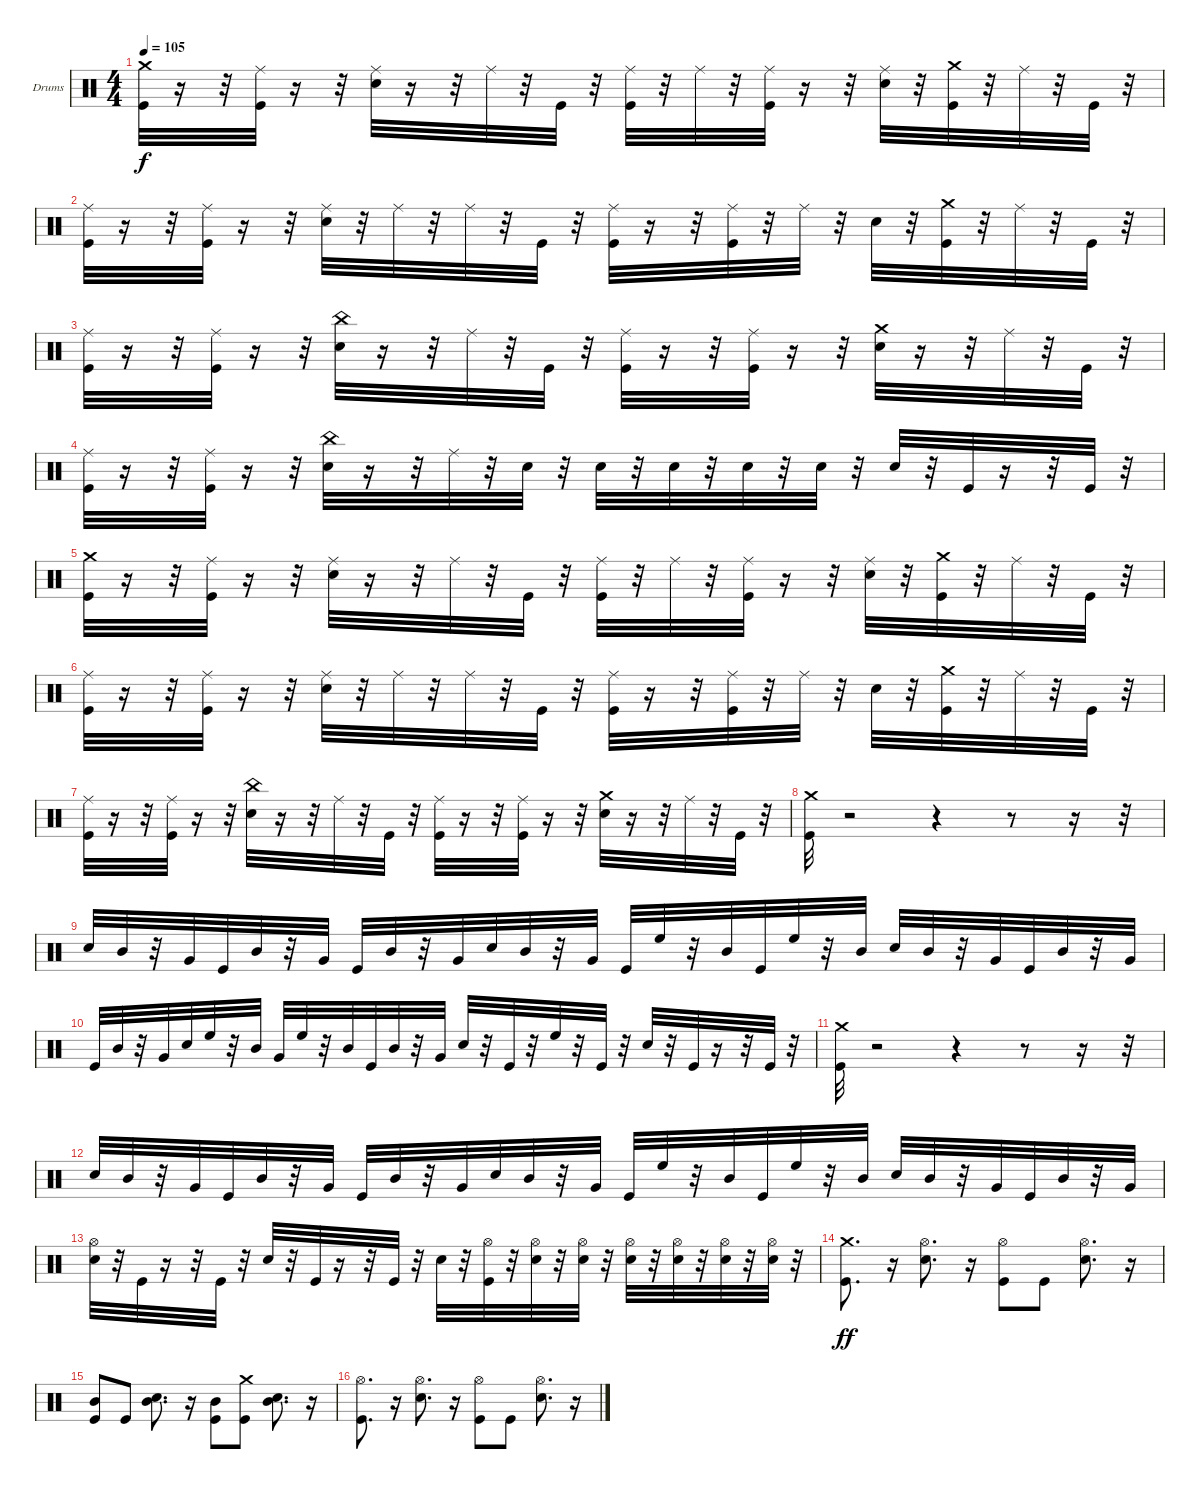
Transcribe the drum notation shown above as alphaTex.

\defaultSystemsLayout 4
\bracketExtendMode groupsimilarinstruments
\firstSystemTrackNameOrientation horizontal
\otherSystemsTrackNameOrientation horizontal
\track ("Drumkit" "Drums") {instrument percussion}
\staff {score}
\articulation defaults
\ts (4 4)
\tempo 105
\clef neutral
\ks c
("Crash medium (hit)" "Kick (hit)").32{dy f} r.16 r.32 ("Kick (hit)" "Ride (middle)").32 r.16 r.32 ("Ride (middle)" "Snare (hit) 2").32 r.16 r.32 "Ride (middle)".32 r.32 "Kick (hit)".32 r.32 ("Kick (hit)" "Ride (middle)").32 r.32 "Ride (middle)".32 r.32 ("Ride (middle)" "Kick (hit)").32 r.16 r.32 ("Snare (hit) 2" "Ride (middle)").32 r.32 ("Crash medium (hit)" "Kick (hit)").32 r.32 "Ride (middle)".32 r.32 "Kick (hit)".32 r.32 |
("Kick (hit)" "Ride (middle)").32 r.16 r.32 ("Kick (hit)" "Ride (middle)").32 r.16 r.32 ("Snare (hit) 2" "Ride (middle)").32 r.32 "Ride (middle)".32 r.32 "Ride (middle)".32 r.32 "Kick (hit)".32 r.32 ("Ride (middle)" "Kick (hit)").32 r.16 r.32 ("Kick (hit)" "Ride (middle)").32 r.32 "Ride (middle)".32 r.32 "Snare (hit) 2".32 r.32 ("Kick (hit)" "Crash medium (hit)").32 r.32 "Ride (middle)".32 r.32 "Kick (hit)".32 r.32 |
("Kick (hit)" "Ride (middle)").32 r.16 r.32 ("Kick (hit)" "Ride (middle)").32 r.16 r.32 ("China (hit)" "Snare (hit) 2").32 r.16 r.32 "Ride (middle)".32 r.32 "Kick (hit)".32 r.32 ("Kick (hit)" "Ride (middle)").32 r.16 r.32 ("Ride (middle)" "Kick (hit)").32 r.16 r.32 ("Snare (hit) 2" "Crash medium (hit)").32 r.16 r.32 "Ride (middle)".32 r.32 "Kick (hit)".32 r.32 |
("Ride (middle)" "Kick (hit)").32 r.16 r.32 ("Kick (hit)" "Ride (middle)").32 r.16 r.32 ("Snare (hit) 2" "China (hit)").32 r.16 r.32 "Ride (middle)".32 r.32 "Snare (hit) 2".32 r.32 "Snare (hit) 2".32 r.32 "Snare (hit) 2".32 r.32 "Snare (hit) 2".32 r.32 "Snare (hit) 2".32 r.32 "Snare (hit) 2".32 r.32 "Kick (hit)".32 r.16 r.32 "Kick (hit)".32 r.32 |
("Crash medium (hit)" "Kick (hit)").32 r.16 r.32 ("Kick (hit)" "Ride (middle)").32 r.16 r.32 ("Ride (middle)" "Snare (hit) 2").32 r.16 r.32 "Ride (middle)".32 r.32 "Kick (hit)".32 r.32 ("Kick (hit)" "Ride (middle)").32 r.32 "Ride (middle)".32 r.32 ("Ride (middle)" "Kick (hit)").32 r.16 r.32 ("Snare (hit) 2" "Ride (middle)").32 r.32 ("Crash medium (hit)" "Kick (hit)").32 r.32 "Ride (middle)".32 r.32 "Kick (hit)".32 r.32 |
("Kick (hit)" "Ride (middle)").32 r.16 r.32 ("Kick (hit)" "Ride (middle)").32 r.16 r.32 ("Snare (hit) 2" "Ride (middle)").32 r.32 "Ride (middle)".32 r.32 "Ride (middle)".32 r.32 "Kick (hit)".32 r.32 ("Ride (middle)" "Kick (hit)").32 r.16 r.32 ("Kick (hit)" "Ride (middle)").32 r.32 "Ride (middle)".32 r.32 "Snare (hit) 2".32 r.32 ("Kick (hit)" "Crash medium (hit)").32 r.32 "Ride (middle)".32 r.32 "Kick (hit)".32 r.32 |
("Kick (hit)" "Ride (middle)").32 r.16 r.32 ("Kick (hit)" "Ride (middle)").32 r.16 r.32 ("China (hit)" "Snare (hit) 2").32 r.16 r.32 "Ride (middle)".32 r.32 "Kick (hit)".32 r.32 ("Kick (hit)" "Ride (middle)").32 r.16 r.32 ("Ride (middle)" "Kick (hit)").32 r.16 r.32 ("Snare (hit) 2" "Crash medium (hit)").32 r.16 r.32 "Ride (middle)".32 r.32 "Kick (hit)".32 r.32 |
("Crash medium (hit)" "Kick (hit)").32 r.2 r.4 r.8 r.16 r.32 |
"Snare (hit) 2".32 "Mid Tom (hit)".32 r.32 "Very Low Tom (hit)".32 "Kick (hit)".32 "Mid Tom (hit)".32 r.32 "Very Low Tom (hit)".32 "Kick (hit)".32 "Mid Tom (hit)".32 r.32 "Very Low Tom (hit)".32 "Snare (hit) 2".32 "Mid Tom (hit)".32 r.32 "Very Low Tom (hit)".32 "Kick (hit)".32 "High Floor Tom (hit)".32 r.32 "Mid Tom (hit)".32 "Kick (hit)".32 "High Floor Tom (hit)".32 r.32 "Mid Tom (hit)".32 "Snare (hit) 2".32 "Mid Tom (hit)".32 r.32 "Very Low Tom (hit)".32 "Kick (hit)".32 "Mid Tom (hit)".32 r.32 "Very Low Tom (hit)".32 |
"Kick (hit)".32 "Mid Tom (hit)".32 r.32 "Very Low Tom (hit)".32 "Snare (hit) 2".32 "High Floor Tom (hit)".32 r.32 "Mid Tom (hit)".32 "Very Low Tom (hit)".32 "High Floor Tom (hit)".32 r.32 "Mid Tom (hit)".32 "Kick (hit)".32 "Mid Tom (hit)".32 r.32 "Very Low Tom (hit)".32 "Snare (hit) 2".32 r.32 "Kick (hit)".32 r.32 "High Floor Tom (hit)".32 r.32 "Kick (hit)".32 r.32 "Snare (hit) 2".32 r.32 "Kick (hit)".32 r.16 r.32 "Kick (hit)".32 r.32 |
("Crash medium (hit)" "Kick (hit)").32 r.2 r.4 r.8 r.16 r.32 |
"Snare (hit) 2".32 "Mid Tom (hit)".32 r.32 "Very Low Tom (hit)".32 "Kick (hit)".32 "Mid Tom (hit)".32 r.32 "Very Low Tom (hit)".32 "Kick (hit)".32 "Mid Tom (hit)".32 r.32 "Very Low Tom (hit)".32 "Snare (hit) 2".32 "Mid Tom (hit)".32 r.32 "Very Low Tom (hit)".32 "Kick (hit)".32 "High Floor Tom (hit)".32 r.32 "Mid Tom (hit)".32 "Kick (hit)".32 "High Floor Tom (hit)".32 r.32 "Mid Tom (hit)".32 "Snare (hit) 2".32 "Mid Tom (hit)".32 r.32 "Very Low Tom (hit)".32 "Kick (hit)".32 "Mid Tom (hit)".32 r.32 "Very Low Tom (hit)".32 |
("Snare (hit) 2" "Hi-Hat (open)").32 r.32 "Kick (hit)".32 r.16 r.32 "Kick (hit)".32 r.32 "Snare (hit) 2".32 r.32 "Kick (hit)".32 r.16 r.32 "Kick (hit)".32 r.32 "Snare (hit) 2".32 r.32 ("Kick (hit)" "Hi-Hat (open)").32 r.32 ("Snare (hit) 2" "Hi-Hat (open)").32 r.32 ("Snare (hit) 2" "Hi-Hat (open)").32 r.32 ("Snare (hit) 2" "Hi-Hat (open)").32 r.32 ("Snare (hit) 2" "Hi-Hat (open)").32 r.32 ("Snare (hit) 2" "Hi-Hat (open)").32 r.32 ("Snare (hit) 2" "Hi-Hat (open)").32 r.32 |
("Kick (hit)" "Crash medium (hit)").8{d dy ff} r.16 ("Snare (hit) 2" "Hi-Hat (open)").8{d} r.16 ("Kick (hit)" "Hi-Hat (open)").8 "Kick (hit)".8 ("Snare (hit) 2" "Hi-Hat (open)").8{d} r.16 |
("Kick (hit)" "Mid Tom (hit)").8 "Kick (hit)".8 ("Snare (hit) 2" "Mid Tom (hit)").8{d} r.16 ("Kick (hit)" "Mid Tom (hit)").8 ("Kick (hit)" "Crash medium (hit)").8 ("Snare (hit) 2" "Mid Tom (hit)").8{d} r.16 |
("Kick (hit)" "Hi-Hat (open)").8{d} r.16 ("Snare (hit) 2" "Hi-Hat (open)").8{d} r.16 ("Kick (hit)" "Hi-Hat (open)").8 "Kick (hit)".8 ("Snare (hit) 2" "Hi-Hat (open)").8{d} r.16
